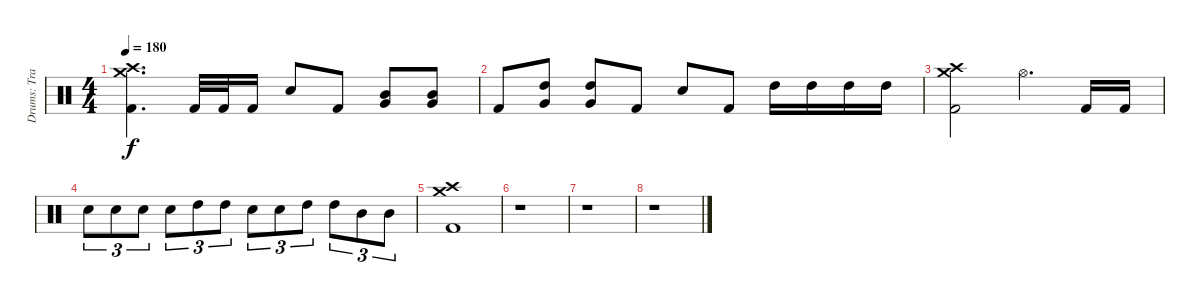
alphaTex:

\track ("Drums: Travis Clarke" "Drums: Tra") {instrument percussion}
\staff {score}
\articulation defaults
\ts (4 4)
\tempo 180
\clef neutral
\ks c
("Kick (hit) 2" "Crash high (hit)" "Crash medium (hit)").4{d dy f} "Kick (hit) 2".32 "Kick (hit) 2".32 "Kick (hit) 2".16 "Snare (hit) 2".8 "Kick (hit) 2".8 ("Very Low Tom (hit)" "Mid Tom (hit)").8 ("Very Low Tom (hit)" "Mid Tom (hit)").8 |
"Kick (hit) 2".8 ("Very Low Tom (hit)" "High Tom (hit)").8 ("Very Low Tom (hit)" "High Tom (hit)").8 "Kick (hit) 2".8 "Snare (hit) 2".8 "Kick (hit) 2".8 "High Tom (hit)".16 "High Tom (hit)".16 "High Tom (hit)".16 "High Tom (hit)".16 |
("Kick (hit) 2" "Crash high (hit)" "Crash medium (hit)").2 "Hi-Hat (open)".4{d} "Kick (hit) 2".16 "Kick (hit) 2".16 |
"Snare (hit) 2".8{tu (3 2)} "Snare (hit) 2".8{tu (3 2)} "Snare (hit) 2".8{tu (3 2)} "Snare (hit) 2".8{tu (3 2)} "High Tom (hit)".8{tu (3 2)} "High Tom (hit)".8{tu (3 2)} "Snare (hit) 2".8{tu (3 2)} "Snare (hit) 2".8{tu (3 2)} "High Tom (hit)".8{tu (3 2)} "High Tom (hit)".8{tu (3 2)} "Mid Tom (hit)".8{tu (3 2)} "Mid Tom (hit)".8{tu (3 2)} |
("Kick (hit) 2" "Crash high (hit)" "Crash medium (hit)").1 |
r.1 |
r.1 |
r.1
